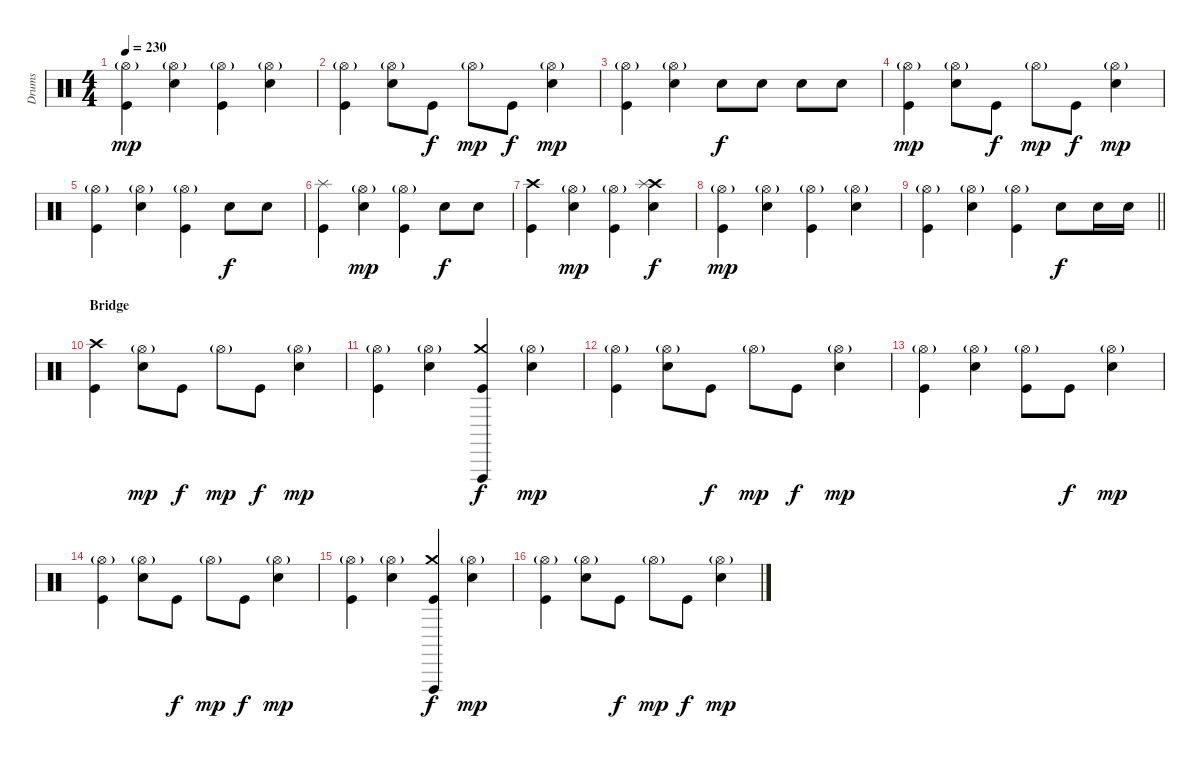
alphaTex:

\track ("Drums" "Drums") {instrument percussion}
\staff {score}
\articulation defaults
\ts (4 4)
\tempo 230
\clef neutral
\ks c
("Hi-Hat (open)"{g} "Kick (hit)").4{dy mp} ("Hi-Hat (open)"{g} "Snare (hit) 2").4 ("Hi-Hat (open)"{g} "Kick (hit)").4 ("Hi-Hat (open)"{g} "Snare (hit) 2").4 |
("Hi-Hat (open)"{g} "Kick (hit)").4 ("Hi-Hat (open)"{g} "Snare (hit) 2").8 "Kick (hit)".8{dy f} "Hi-Hat (open)"{g}.8{dy mp} "Kick (hit)".8{dy f} ("Hi-Hat (open)"{g} "Snare (hit) 2").4{dy mp} |
("Hi-Hat (open)"{g} "Kick (hit)").4 ("Hi-Hat (open)"{g} "Snare (hit) 2").4 "Snare (hit) 2".8{dy f} "Snare (hit) 2".8 "Snare (hit) 2".8 "Snare (hit) 2".8 |
("Hi-Hat (open)"{g} "Kick (hit)").4{dy mp} ("Hi-Hat (open)"{g} "Snare (hit) 2").8 "Kick (hit)".8{dy f} "Hi-Hat (open)"{g}.8{dy mp} "Kick (hit)".8{dy f} ("Hi-Hat (open)"{g} "Snare (hit) 2").4{dy mp} |
("Hi-Hat (open)"{g} "Kick (hit)").4 ("Hi-Hat (open)"{g} "Snare (hit) 2").4 ("Hi-Hat (open)"{g} "Kick (hit)").4 "Snare (hit) 2".8{dy f} "Snare (hit) 2".8 |
("Splash (hit)" "Kick (hit)").4 ("Hi-Hat (open)"{g} "Snare (hit) 2").4{dy mp} ("Hi-Hat (open)"{g} "Kick (hit)").4 "Snare (hit) 2".8{dy f} "Snare (hit) 2".8 |
("Crash high (hit)" "Kick (hit)").4 ("Hi-Hat (open)"{g} "Snare (hit) 2").4{dy mp} ("Hi-Hat (open)"{g} "Kick (hit)").4 ("Crash high (hit)" "Splash (hit)" "Snare (hit) 2").4{dy f} |
("Hi-Hat (open)"{g} "Kick (hit)").4{dy mp} ("Hi-Hat (open)"{g} "Snare (hit) 2").4 ("Hi-Hat (open)"{g} "Kick (hit)").4 ("Hi-Hat (open)"{g} "Snare (hit) 2").4 |
\barLineRight lightlight
("Hi-Hat (open)"{g} "Kick (hit)").4 ("Hi-Hat (open)"{g} "Snare (hit) 2").4 ("Hi-Hat (open)"{g} "Kick (hit)").4 "Snare (hit) 2".8{dy f} "Snare (hit) 2".16 "Snare (hit) 2".16 |
\section ("" "Bridge")
("Crash high (hit)" "Kick (hit)").4 ("Hi-Hat (open)"{g} "Snare (hit) 2").8{dy mp} "Kick (hit)".8{dy f} "Hi-Hat (open)"{g}.8{dy mp} "Kick (hit)".8{dy f} ("Hi-Hat (open)"{g} "Snare (hit) 2").4{dy mp} |
("Hi-Hat (open)"{g} "Kick (hit)").4 ("Hi-Hat (open)"{g} "Snare (hit) 2").4 ("Crash medium (hit)" "Vibraslap (hit)" "Kick (hit)").4{dy f} ("Hi-Hat (open)"{g} "Snare (hit) 2").4{dy mp} |
("Hi-Hat (open)"{g} "Kick (hit)").4 ("Hi-Hat (open)"{g} "Snare (hit) 2").8 "Kick (hit)".8{dy f} "Hi-Hat (open)"{g}.8{dy mp} "Kick (hit)".8{dy f} ("Hi-Hat (open)"{g} "Snare (hit) 2").4{dy mp} |
("Hi-Hat (open)"{g} "Kick (hit)").4 ("Hi-Hat (open)"{g} "Snare (hit) 2").4 ("Hi-Hat (open)"{g} "Kick (hit)").8 "Kick (hit)".8{dy f} ("Hi-Hat (open)"{g} "Snare (hit) 2").4{dy mp} |
("Hi-Hat (open)"{g} "Kick (hit)").4 ("Hi-Hat (open)"{g} "Snare (hit) 2").8 "Kick (hit)".8{dy f} "Hi-Hat (open)"{g}.8{dy mp} "Kick (hit)".8{dy f} ("Hi-Hat (open)"{g} "Snare (hit) 2").4{dy mp} |
("Hi-Hat (open)"{g} "Kick (hit)").4 ("Hi-Hat (open)"{g} "Snare (hit) 2").4 ("Crash medium (hit)" "Vibraslap (hit)" "Kick (hit)").4{dy f} ("Hi-Hat (open)"{g} "Snare (hit) 2").4{dy mp} |
("Hi-Hat (open)"{g} "Kick (hit)").4 ("Hi-Hat (open)"{g} "Snare (hit) 2").8 "Kick (hit)".8{dy f} "Hi-Hat (open)"{g}.8{dy mp} "Kick (hit)".8{dy f} ("Hi-Hat (open)"{g} "Snare (hit) 2").4{dy mp}
